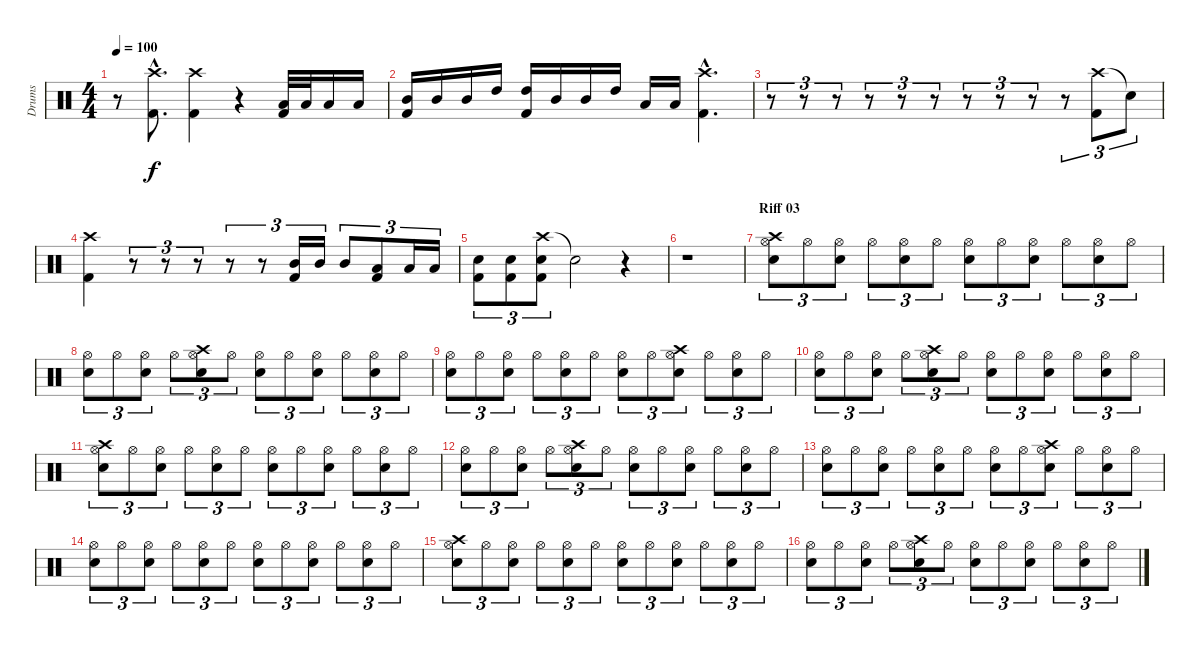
\track ("Drums" "Drums") {instrument percussion}
\staff {score}
\articulation defaults
\ts (4 4)
\tempo 100
\clef neutral
\ks c
r.8{dy f} ("Crash high (hit)"{hac} "Kick (hit) 2"{hac}).8{d} ("Crash high (hit)" "Kick (hit) 2").4 r.4 ("Low Tom (hit)" "Kick (hit) 2").32 "Low Tom (hit)".32 "Low Tom (hit)".16 "Low Tom (hit)".16 |
("Mid Tom (hit)" "Kick (hit) 2").16 "Mid Tom (hit)".16 "Mid Tom (hit)".16 "High Tom (hit)".16 ("High Tom (hit)" "Kick (hit) 2").16 "Mid Tom (hit)".16 "Mid Tom (hit)".16 "High Tom (hit)".16 "Low Floor Tom (hit)".16 "Low Floor Tom (hit)".16 ("Crash high (hit)"{hac} "Kick (hit) 2").4{d} |
r.8{tu (3 2)} r.8{tu (3 2)} r.8{tu (3 2)} r.8{tu (3 2)} r.8{tu (3 2)} r.8{tu (3 2)} r.8{tu (3 2)} r.8{tu (3 2)} r.8{tu (3 2)} r.8{tu (3 2)} ("Crash high (hit)" "Kick (hit) 2").8{tu (3 2)} "Snare (hit)"{t}.8{tu (3 2)} |
("Crash high (hit)" "Kick (hit) 2").4 r.8{tu (3 2)} r.8{tu (3 2)} r.8{tu (3 2)} r.8{tu (3 2)} r.8{tu (3 2)} ("Mid Tom (hit)" "Kick (hit) 2").16{tu (3 2)} "Mid Tom (hit)".16{tu (3 2)} "Mid Tom (hit)".8{tu (3 2)} ("Low Tom (hit)" "Kick (hit) 2").8{tu (3 2)} "Low Tom (hit)".16{tu (3 2)} "Low Tom (hit)".16{tu (3 2)} |
("Snare (hit) 2" "Kick (hit) 2").8{tu (3 2)} ("Snare (hit) 2" "Kick (hit) 2").8{tu (3 2)} ("Crash high (hit)" "Snare (hit) 2" "Kick (hit) 2").8{tu (3 2)} "Snare (hit)"{t}.2 r.4 |
r.1 |
\section ("" "Riff 03")
("Hi-Hat (open)" "Snare (hit) 2" "Crash high (hit)").8{tu (3 2)} "Hi-Hat (open)".8{tu (3 2)} ("Hi-Hat (open)" "Snare (hit) 2").8{tu (3 2)} "Hi-Hat (open)".8{tu (3 2)} ("Hi-Hat (open)" "Snare (hit) 2").8{tu (3 2)} "Hi-Hat (open)".8{tu (3 2)} ("Hi-Hat (open)" "Snare (hit) 2").8{tu (3 2)} "Hi-Hat (open)".8{tu (3 2)} ("Hi-Hat (open)" "Snare (hit) 2").8{tu (3 2)} "Hi-Hat (open)".8{tu (3 2)} ("Hi-Hat (open)" "Snare (hit) 2").8{tu (3 2)} "Hi-Hat (open)".8{tu (3 2)} |
("Hi-Hat (open)" "Snare (hit) 2").8{tu (3 2)} "Hi-Hat (open)".8{tu (3 2)} ("Hi-Hat (open)" "Snare (hit) 2").8{tu (3 2)} "Hi-Hat (open)".8{tu (3 2)} ("Hi-Hat (open)" "Snare (hit) 2" "Crash high (hit)").8{tu (3 2)} "Hi-Hat (open)".8{tu (3 2)} ("Hi-Hat (open)" "Snare (hit) 2").8{tu (3 2)} "Hi-Hat (open)".8{tu (3 2)} ("Hi-Hat (open)" "Snare (hit) 2").8{tu (3 2)} "Hi-Hat (open)".8{tu (3 2)} ("Hi-Hat (open)" "Snare (hit) 2").8{tu (3 2)} "Hi-Hat (open)".8{tu (3 2)} |
("Hi-Hat (open)" "Snare (hit) 2").8{tu (3 2)} "Hi-Hat (open)".8{tu (3 2)} ("Hi-Hat (open)" "Snare (hit) 2").8{tu (3 2)} "Hi-Hat (open)".8{tu (3 2)} ("Hi-Hat (open)" "Snare (hit) 2").8{tu (3 2)} "Hi-Hat (open)".8{tu (3 2)} ("Hi-Hat (open)" "Snare (hit) 2").8{tu (3 2)} "Hi-Hat (open)".8{tu (3 2)} ("Hi-Hat (open)" "Snare (hit) 2" "Crash high (hit)").8{tu (3 2)} "Hi-Hat (open)".8{tu (3 2)} ("Hi-Hat (open)" "Snare (hit) 2").8{tu (3 2)} "Hi-Hat (open)".8{tu (3 2)} |
("Hi-Hat (open)" "Snare (hit) 2").8{tu (3 2)} "Hi-Hat (open)".8{tu (3 2)} ("Hi-Hat (open)" "Snare (hit) 2").8{tu (3 2)} "Hi-Hat (open)".8{tu (3 2)} ("Hi-Hat (open)" "Snare (hit) 2" "Crash high (hit)").8{tu (3 2)} "Hi-Hat (open)".8{tu (3 2)} ("Hi-Hat (open)" "Snare (hit) 2").8{tu (3 2)} "Hi-Hat (open)".8{tu (3 2)} ("Hi-Hat (open)" "Snare (hit) 2").8{tu (3 2)} "Hi-Hat (open)".8{tu (3 2)} ("Hi-Hat (open)" "Snare (hit) 2").8{tu (3 2)} "Hi-Hat (open)".8{tu (3 2)} |
("Hi-Hat (open)" "Snare (hit) 2" "Crash high (hit)").8{tu (3 2)} "Hi-Hat (open)".8{tu (3 2)} ("Hi-Hat (open)" "Snare (hit) 2").8{tu (3 2)} "Hi-Hat (open)".8{tu (3 2)} ("Hi-Hat (open)" "Snare (hit) 2").8{tu (3 2)} "Hi-Hat (open)".8{tu (3 2)} ("Hi-Hat (open)" "Snare (hit) 2").8{tu (3 2)} "Hi-Hat (open)".8{tu (3 2)} ("Hi-Hat (open)" "Snare (hit) 2").8{tu (3 2)} "Hi-Hat (open)".8{tu (3 2)} ("Hi-Hat (open)" "Snare (hit) 2").8{tu (3 2)} "Hi-Hat (open)".8{tu (3 2)} |
("Hi-Hat (open)" "Snare (hit) 2").8{tu (3 2)} "Hi-Hat (open)".8{tu (3 2)} ("Hi-Hat (open)" "Snare (hit) 2").8{tu (3 2)} "Hi-Hat (open)".8{tu (3 2)} ("Hi-Hat (open)" "Snare (hit) 2" "Crash high (hit)").8{tu (3 2)} "Hi-Hat (open)".8{tu (3 2)} ("Hi-Hat (open)" "Snare (hit) 2").8{tu (3 2)} "Hi-Hat (open)".8{tu (3 2)} ("Hi-Hat (open)" "Snare (hit) 2").8{tu (3 2)} "Hi-Hat (open)".8{tu (3 2)} ("Hi-Hat (open)" "Snare (hit) 2").8{tu (3 2)} "Hi-Hat (open)".8{tu (3 2)} |
("Hi-Hat (open)" "Snare (hit) 2").8{tu (3 2)} "Hi-Hat (open)".8{tu (3 2)} ("Hi-Hat (open)" "Snare (hit) 2").8{tu (3 2)} "Hi-Hat (open)".8{tu (3 2)} ("Hi-Hat (open)" "Snare (hit) 2").8{tu (3 2)} "Hi-Hat (open)".8{tu (3 2)} ("Hi-Hat (open)" "Snare (hit) 2").8{tu (3 2)} "Hi-Hat (open)".8{tu (3 2)} ("Hi-Hat (open)" "Snare (hit) 2" "Crash high (hit)").8{tu (3 2)} "Hi-Hat (open)".8{tu (3 2)} ("Hi-Hat (open)" "Snare (hit) 2").8{tu (3 2)} "Hi-Hat (open)".8{tu (3 2)} |
("Hi-Hat (open)" "Snare (hit) 2").8{tu (3 2)} "Hi-Hat (open)".8{tu (3 2)} ("Hi-Hat (open)" "Snare (hit) 2").8{tu (3 2)} "Hi-Hat (open)".8{tu (3 2)} ("Hi-Hat (open)" "Snare (hit) 2").8{tu (3 2)} "Hi-Hat (open)".8{tu (3 2)} ("Hi-Hat (open)" "Snare (hit) 2").8{tu (3 2)} "Hi-Hat (open)".8{tu (3 2)} ("Hi-Hat (open)" "Snare (hit) 2").8{tu (3 2)} "Hi-Hat (open)".8{tu (3 2)} ("Hi-Hat (open)" "Snare (hit) 2").8{tu (3 2)} "Hi-Hat (open)".8{tu (3 2)} |
("Hi-Hat (open)" "Snare (hit) 2" "Crash high (hit)").8{tu (3 2)} "Hi-Hat (open)".8{tu (3 2)} ("Hi-Hat (open)" "Snare (hit) 2").8{tu (3 2)} "Hi-Hat (open)".8{tu (3 2)} ("Hi-Hat (open)" "Snare (hit) 2").8{tu (3 2)} "Hi-Hat (open)".8{tu (3 2)} ("Hi-Hat (open)" "Snare (hit) 2").8{tu (3 2)} "Hi-Hat (open)".8{tu (3 2)} ("Hi-Hat (open)" "Snare (hit) 2").8{tu (3 2)} "Hi-Hat (open)".8{tu (3 2)} ("Hi-Hat (open)" "Snare (hit) 2").8{tu (3 2)} "Hi-Hat (open)".8{tu (3 2)} |
("Hi-Hat (open)" "Snare (hit) 2").8{tu (3 2)} "Hi-Hat (open)".8{tu (3 2)} ("Hi-Hat (open)" "Snare (hit) 2").8{tu (3 2)} "Hi-Hat (open)".8{tu (3 2)} ("Hi-Hat (open)" "Snare (hit) 2" "Crash high (hit)").8{tu (3 2)} "Hi-Hat (open)".8{tu (3 2)} ("Hi-Hat (open)" "Snare (hit) 2").8{tu (3 2)} "Hi-Hat (open)".8{tu (3 2)} ("Hi-Hat (open)" "Snare (hit) 2").8{tu (3 2)} "Hi-Hat (open)".8{tu (3 2)} ("Hi-Hat (open)" "Snare (hit) 2").8{tu (3 2)} "Hi-Hat (open)".8{tu (3 2)}
